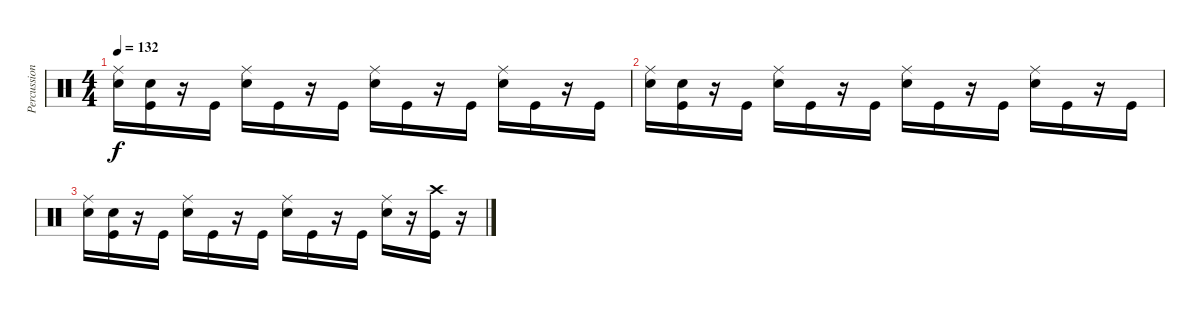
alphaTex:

\track ("Percussion" "Percussion") {instrument percussion}
\staff {score}
\articulation defaults
\ts (4 4)
\tempo 132
\clef neutral
\ks c
("Ride (middle)" "Electric Snare (hit)").16{dy f} ("Electric Snare (hit)" "Kick (hit)").16 r.16 "Kick (hit)".16 ("Ride (middle)" "Electric Snare (hit)").16 "Kick (hit)".16 r.16 "Kick (hit)".16 ("Ride (middle)" "Electric Snare (hit)").16 "Kick (hit)".16 r.16 "Kick (hit)".16 ("Ride (middle)" "Electric Snare (hit)").16 "Kick (hit)".16 r.16 "Kick (hit)".16 |
("Ride (middle)" "Electric Snare (hit)").16 ("Electric Snare (hit)" "Kick (hit)").16 r.16 "Kick (hit)".16 ("Ride (middle)" "Electric Snare (hit)").16 "Kick (hit)".16 r.16 "Kick (hit)".16 ("Ride (middle)" "Electric Snare (hit)").16 "Kick (hit)".16 r.16 "Kick (hit)".16 ("Ride (middle)" "Electric Snare (hit)").16 "Kick (hit)".16 r.16 "Kick (hit)".16 |
("Ride (middle)" "Electric Snare (hit)").16 ("Electric Snare (hit)" "Kick (hit)").16 r.16 "Kick (hit)".16 ("Ride (middle)" "Electric Snare (hit)").16 "Kick (hit)".16 r.16 "Kick (hit)".16 ("Ride (middle)" "Electric Snare (hit)").16 "Kick (hit)".16 r.16 "Kick (hit)".16 ("Ride (middle)" "Electric Snare (hit)").16 r.16 ("Crash high (hit)" "Kick (hit)").16 r.16
